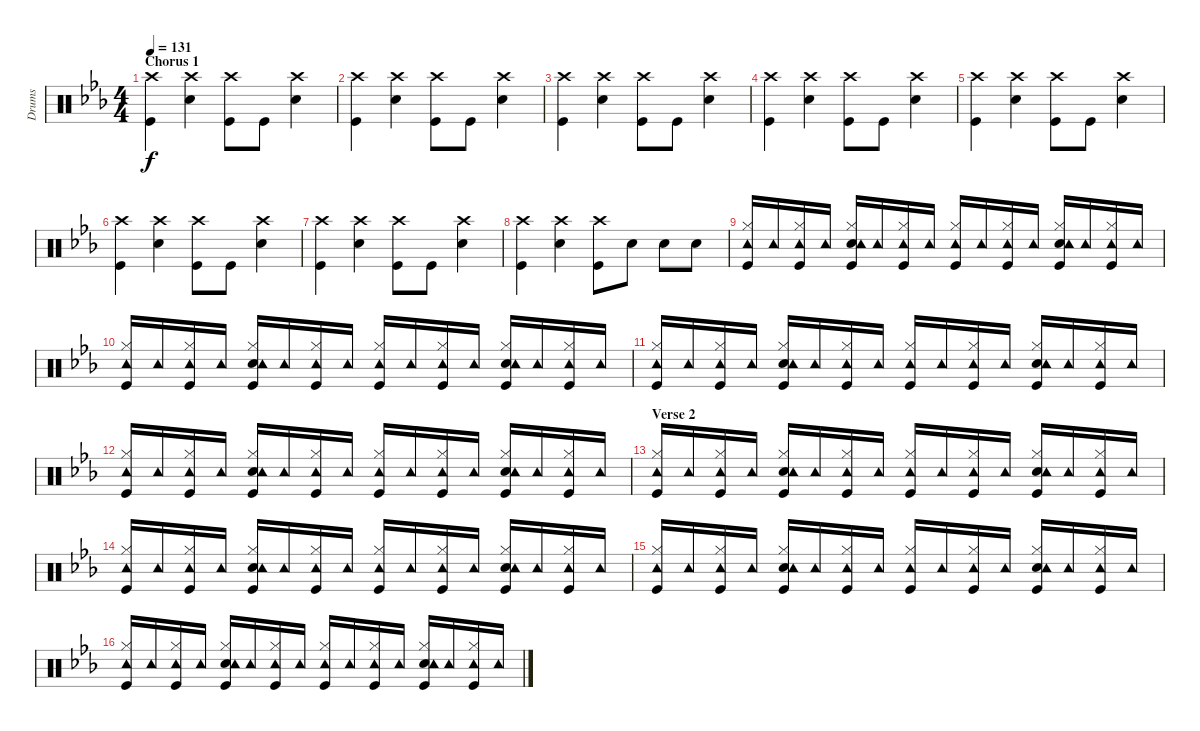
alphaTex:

\track ("Drums" "Drums") {instrument percussion}
\staff {score}
\articulation defaults
\ts (4 4)
\section ("" "Chorus 1")
\tempo 131
\clef neutral
\ks eb
("Kick (hit)" "Crash high (hit)").4{dy f} ("Snare (hit) 2" "Crash high (hit)").4 ("Kick (hit)" "Crash high (hit)").8 "Kick (hit)".8 ("Snare (hit) 2" "Crash high (hit)").4 |
("Kick (hit)" "Crash high (hit)").4 ("Snare (hit) 2" "Crash high (hit)").4 ("Kick (hit)" "Crash high (hit)").8 "Kick (hit)".8 ("Snare (hit) 2" "Crash high (hit)").4 |
("Kick (hit)" "Crash high (hit)").4 ("Snare (hit) 2" "Crash high (hit)").4 ("Kick (hit)" "Crash high (hit)").8 "Kick (hit)".8 ("Snare (hit) 2" "Crash high (hit)").4 |
("Kick (hit)" "Crash high (hit)").4 ("Snare (hit) 2" "Crash high (hit)").4 ("Kick (hit)" "Crash high (hit)").8 "Kick (hit)".8 ("Snare (hit) 2" "Crash high (hit)").4 |
("Kick (hit)" "Crash high (hit)").4 ("Snare (hit) 2" "Crash high (hit)").4 ("Kick (hit)" "Crash high (hit)").8 "Kick (hit)".8 ("Snare (hit) 2" "Crash high (hit)").4 |
("Kick (hit)" "Crash high (hit)").4 ("Snare (hit) 2" "Crash high (hit)").4 ("Kick (hit)" "Crash high (hit)").8 "Kick (hit)".8 ("Snare (hit) 2" "Crash high (hit)").4 |
("Kick (hit)" "Crash high (hit)").4 ("Snare (hit) 2" "Crash high (hit)").4 ("Kick (hit)" "Crash high (hit)").8 "Kick (hit)".8 ("Snare (hit) 2" "Crash high (hit)").4 |
("Kick (hit)" "Crash high (hit)").4 ("Snare (hit) 2" "Crash high (hit)").4 ("Kick (hit)" "Crash high (hit)").8 "Snare (hit) 2".8 "Snare (hit) 2".8 "Snare (hit) 2".8 |
("Kick (hit)" "Hi-Hat (closed)" "Tambourine (hit)").16 "Tambourine (hit)".16 ("Kick (hit)" "Hi-Hat (closed)" "Tambourine (hit)").16 "Tambourine (hit)".16 ("Kick (hit)" "Snare (hit) 2" "Hi-Hat (closed)" "Tambourine (hit)").16 "Tambourine (hit)".16 ("Kick (hit)" "Hi-Hat (closed)" "Tambourine (hit)").16 "Tambourine (hit)".16 ("Kick (hit)" "Hi-Hat (closed)" "Tambourine (hit)").16 "Tambourine (hit)".16 ("Kick (hit)" "Hi-Hat (closed)" "Tambourine (hit)").16 "Tambourine (hit)".16 ("Kick (hit)" "Snare (hit) 2" "Hi-Hat (closed)" "Tambourine (hit)").16 "Tambourine (hit)".16 ("Kick (hit)" "Hi-Hat (closed)" "Tambourine (hit)").16 "Tambourine (hit)".16 |
("Kick (hit)" "Hi-Hat (closed)" "Tambourine (hit)").16 "Tambourine (hit)".16 ("Kick (hit)" "Hi-Hat (closed)" "Tambourine (hit)").16 "Tambourine (hit)".16 ("Kick (hit)" "Snare (hit) 2" "Hi-Hat (closed)" "Tambourine (hit)").16 "Tambourine (hit)".16 ("Kick (hit)" "Hi-Hat (closed)" "Tambourine (hit)").16 "Tambourine (hit)".16 ("Kick (hit)" "Hi-Hat (closed)" "Tambourine (hit)").16 "Tambourine (hit)".16 ("Kick (hit)" "Hi-Hat (closed)" "Tambourine (hit)").16 "Tambourine (hit)".16 ("Kick (hit)" "Snare (hit) 2" "Hi-Hat (closed)" "Tambourine (hit)").16 "Tambourine (hit)".16 ("Kick (hit)" "Hi-Hat (closed)" "Tambourine (hit)").16 "Tambourine (hit)".16 |
("Kick (hit)" "Hi-Hat (closed)" "Tambourine (hit)").16 "Tambourine (hit)".16 ("Kick (hit)" "Hi-Hat (closed)" "Tambourine (hit)").16 "Tambourine (hit)".16 ("Kick (hit)" "Snare (hit) 2" "Hi-Hat (closed)" "Tambourine (hit)").16 "Tambourine (hit)".16 ("Kick (hit)" "Hi-Hat (closed)" "Tambourine (hit)").16 "Tambourine (hit)".16 ("Kick (hit)" "Hi-Hat (closed)" "Tambourine (hit)").16 "Tambourine (hit)".16 ("Kick (hit)" "Hi-Hat (closed)" "Tambourine (hit)").16 "Tambourine (hit)".16 ("Kick (hit)" "Snare (hit) 2" "Hi-Hat (closed)" "Tambourine (hit)").16 "Tambourine (hit)".16 ("Kick (hit)" "Hi-Hat (closed)" "Tambourine (hit)").16 "Tambourine (hit)".16 |
("Kick (hit)" "Hi-Hat (closed)" "Tambourine (hit)").16 "Tambourine (hit)".16 ("Kick (hit)" "Hi-Hat (closed)" "Tambourine (hit)").16 "Tambourine (hit)".16 ("Kick (hit)" "Snare (hit) 2" "Hi-Hat (closed)" "Tambourine (hit)").16 "Tambourine (hit)".16 ("Kick (hit)" "Hi-Hat (closed)" "Tambourine (hit)").16 "Tambourine (hit)".16 ("Kick (hit)" "Hi-Hat (closed)" "Tambourine (hit)").16 "Tambourine (hit)".16 ("Kick (hit)" "Hi-Hat (closed)" "Tambourine (hit)").16 "Tambourine (hit)".16 ("Kick (hit)" "Snare (hit) 2" "Hi-Hat (closed)" "Tambourine (hit)").16 "Tambourine (hit)".16 ("Kick (hit)" "Hi-Hat (closed)" "Tambourine (hit)").16 "Tambourine (hit)".16 |
\section ("" "Verse 2")
("Kick (hit)" "Hi-Hat (closed)" "Tambourine (hit)").16 "Tambourine (hit)".16 ("Kick (hit)" "Hi-Hat (closed)" "Tambourine (hit)").16 "Tambourine (hit)".16 ("Kick (hit)" "Snare (hit) 2" "Hi-Hat (closed)" "Tambourine (hit)").16 "Tambourine (hit)".16 ("Kick (hit)" "Hi-Hat (closed)" "Tambourine (hit)").16 "Tambourine (hit)".16 ("Kick (hit)" "Hi-Hat (closed)" "Tambourine (hit)").16 "Tambourine (hit)".16 ("Kick (hit)" "Hi-Hat (closed)" "Tambourine (hit)").16 "Tambourine (hit)".16 ("Kick (hit)" "Snare (hit) 2" "Hi-Hat (closed)" "Tambourine (hit)").16 "Tambourine (hit)".16 ("Kick (hit)" "Hi-Hat (closed)" "Tambourine (hit)").16 "Tambourine (hit)".16 |
("Kick (hit)" "Hi-Hat (closed)" "Tambourine (hit)").16 "Tambourine (hit)".16 ("Kick (hit)" "Hi-Hat (closed)" "Tambourine (hit)").16 "Tambourine (hit)".16 ("Kick (hit)" "Snare (hit) 2" "Hi-Hat (closed)" "Tambourine (hit)").16 "Tambourine (hit)".16 ("Kick (hit)" "Hi-Hat (closed)" "Tambourine (hit)").16 "Tambourine (hit)".16 ("Kick (hit)" "Hi-Hat (closed)" "Tambourine (hit)").16 "Tambourine (hit)".16 ("Kick (hit)" "Hi-Hat (closed)" "Tambourine (hit)").16 "Tambourine (hit)".16 ("Kick (hit)" "Snare (hit) 2" "Hi-Hat (closed)" "Tambourine (hit)").16 "Tambourine (hit)".16 ("Kick (hit)" "Hi-Hat (closed)" "Tambourine (hit)").16 "Tambourine (hit)".16 |
("Kick (hit)" "Hi-Hat (closed)" "Tambourine (hit)").16 "Tambourine (hit)".16 ("Kick (hit)" "Hi-Hat (closed)" "Tambourine (hit)").16 "Tambourine (hit)".16 ("Kick (hit)" "Snare (hit) 2" "Hi-Hat (closed)" "Tambourine (hit)").16 "Tambourine (hit)".16 ("Kick (hit)" "Hi-Hat (closed)" "Tambourine (hit)").16 "Tambourine (hit)".16 ("Kick (hit)" "Hi-Hat (closed)" "Tambourine (hit)").16 "Tambourine (hit)".16 ("Kick (hit)" "Hi-Hat (closed)" "Tambourine (hit)").16 "Tambourine (hit)".16 ("Kick (hit)" "Snare (hit) 2" "Hi-Hat (closed)" "Tambourine (hit)").16 "Tambourine (hit)".16 ("Kick (hit)" "Hi-Hat (closed)" "Tambourine (hit)").16 "Tambourine (hit)".16 |
("Kick (hit)" "Hi-Hat (closed)" "Tambourine (hit)").16 "Tambourine (hit)".16 ("Kick (hit)" "Hi-Hat (closed)" "Tambourine (hit)").16 "Tambourine (hit)".16 ("Kick (hit)" "Snare (hit) 2" "Hi-Hat (closed)" "Tambourine (hit)").16 "Tambourine (hit)".16 ("Kick (hit)" "Hi-Hat (closed)" "Tambourine (hit)").16 "Tambourine (hit)".16 ("Kick (hit)" "Hi-Hat (closed)" "Tambourine (hit)").16 "Tambourine (hit)".16 ("Kick (hit)" "Hi-Hat (closed)" "Tambourine (hit)").16 "Tambourine (hit)".16 ("Kick (hit)" "Snare (hit) 2" "Hi-Hat (closed)" "Tambourine (hit)").16 "Tambourine (hit)".16 ("Kick (hit)" "Hi-Hat (closed)" "Tambourine (hit)").16 "Tambourine (hit)".16
